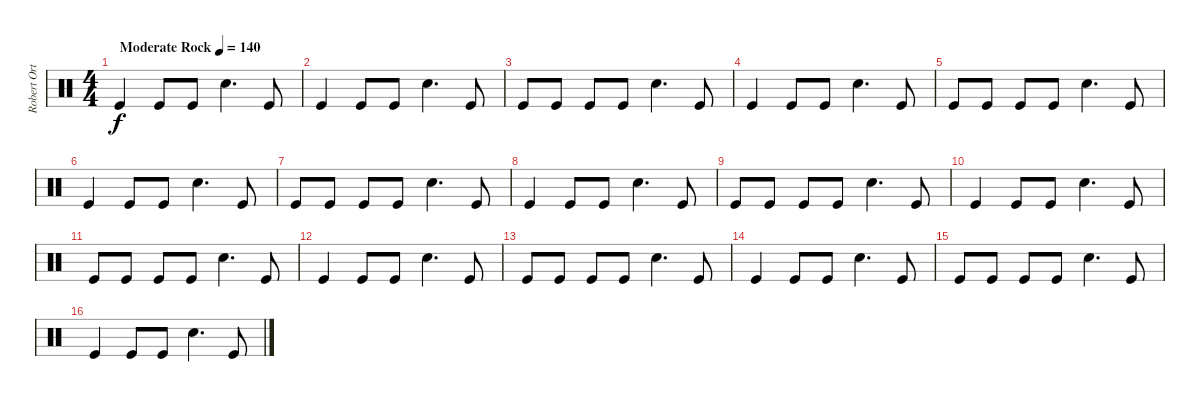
\track ("Robert Ortiz" "Robert Ort") {instrument percussion}
\staff {score}
\articulation defaults
\ts (4 4)
\tempo (140 "Moderate Rock")
\clef neutral
\ks c "Kick (hit)".4{dy f} "Kick (hit)".8 "Kick (hit)".8 "Snare (hit) 2".4{d} "Kick (hit)".8
|
"Kick (hit)".4 "Kick (hit)".8 "Kick (hit)".8 "Snare (hit) 2".4{d} "Kick (hit)".8 |
"Kick (hit)".8 "Kick (hit)".8 "Kick (hit)".8 "Kick (hit)".8 "Snare (hit) 2".4{d} "Kick (hit)".8 |
"Kick (hit)".4 "Kick (hit)".8 "Kick (hit)".8 "Snare (hit) 2".4{d} "Kick (hit)".8 |
"Kick (hit)".8 "Kick (hit)".8 "Kick (hit)".8 "Kick (hit)".8 "Snare (hit) 2".4{d} "Kick (hit)".8 |
"Kick (hit)".4 "Kick (hit)".8 "Kick (hit)".8 "Snare (hit) 2".4{d} "Kick (hit)".8 |
"Kick (hit)".8 "Kick (hit)".8 "Kick (hit)".8 "Kick (hit)".8 "Snare (hit) 2".4{d} "Kick (hit)".8 |
"Kick (hit)".4 "Kick (hit)".8 "Kick (hit)".8 "Snare (hit) 2".4{d} "Kick (hit)".8 |
"Kick (hit)".8 "Kick (hit)".8 "Kick (hit)".8 "Kick (hit)".8 "Snare (hit) 2".4{d} "Kick (hit)".8 |
"Kick (hit)".4 "Kick (hit)".8 "Kick (hit)".8 "Snare (hit) 2".4{d} "Kick (hit)".8 |
"Kick (hit)".8 "Kick (hit)".8 "Kick (hit)".8 "Kick (hit)".8 "Snare (hit) 2".4{d} "Kick (hit)".8 |
"Kick (hit)".4 "Kick (hit)".8 "Kick (hit)".8 "Snare (hit) 2".4{d} "Kick (hit)".8 |
"Kick (hit)".8 "Kick (hit)".8 "Kick (hit)".8 "Kick (hit)".8 "Snare (hit) 2".4{d} "Kick (hit)".8 |
"Kick (hit)".4 "Kick (hit)".8 "Kick (hit)".8 "Snare (hit) 2".4{d} "Kick (hit)".8 |
"Kick (hit)".8 "Kick (hit)".8 "Kick (hit)".8 "Kick (hit)".8 "Snare (hit) 2".4{d} "Kick (hit)".8 |
"Kick (hit)".4 "Kick (hit)".8 "Kick (hit)".8 "Snare (hit) 2".4{d} "Kick (hit)".8
